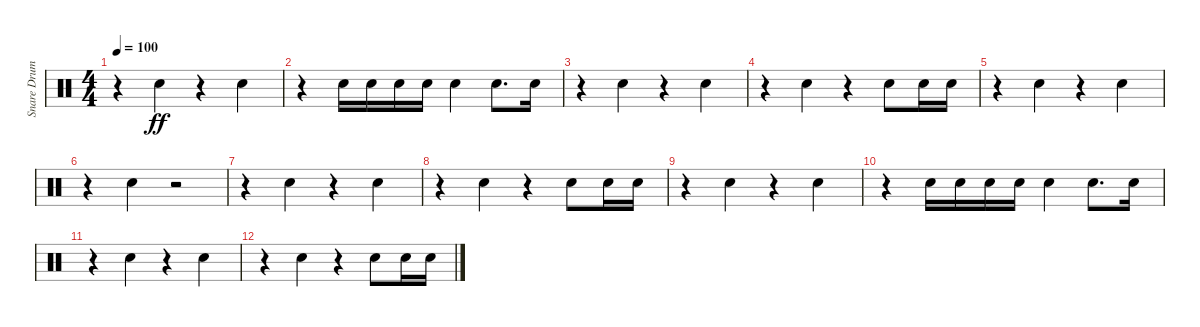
\track ("Snare Drum" "Snare Drum") {instrument percussion}
\staff {score}
\articulation defaults
\ts (4 4)
\tempo 100
\clef neutral
\ks c
r.4{dy ff} "Electric Snare (hit)".4 r.4 "Electric Snare (hit)".4 |
r.4 "Electric Snare (hit)".16 "Electric Snare (hit)".16 "Electric Snare (hit)".16 "Electric Snare (hit)".16 "Electric Snare (hit)".4 "Electric Snare (hit)".8{d} "Electric Snare (hit)".16 |
r.4 "Electric Snare (hit)".4 r.4 "Electric Snare (hit)".4 |
r.4 "Electric Snare (hit)".4 r.4 "Electric Snare (hit)".8 "Electric Snare (hit)".16 "Electric Snare (hit)".16 |
r.4 "Electric Snare (hit)".4 r.4 "Electric Snare (hit)".4 |
r.4 "Electric Snare (hit)".4 r.2 |
r.4 "Electric Snare (hit)".4 r.4 "Electric Snare (hit)".4 |
r.4 "Electric Snare (hit)".4 r.4 "Electric Snare (hit)".8 "Electric Snare (hit)".16 "Electric Snare (hit)".16 |
r.4 "Electric Snare (hit)".4 r.4 "Electric Snare (hit)".4 |
r.4 "Electric Snare (hit)".16 "Electric Snare (hit)".16 "Electric Snare (hit)".16 "Electric Snare (hit)".16 "Electric Snare (hit)".4 "Electric Snare (hit)".8{d} "Electric Snare (hit)".16 |
r.4 "Electric Snare (hit)".4 r.4 "Electric Snare (hit)".4 |
r.4 "Electric Snare (hit)".4 r.4 "Electric Snare (hit)".8 "Electric Snare (hit)".16 "Electric Snare (hit)".16
